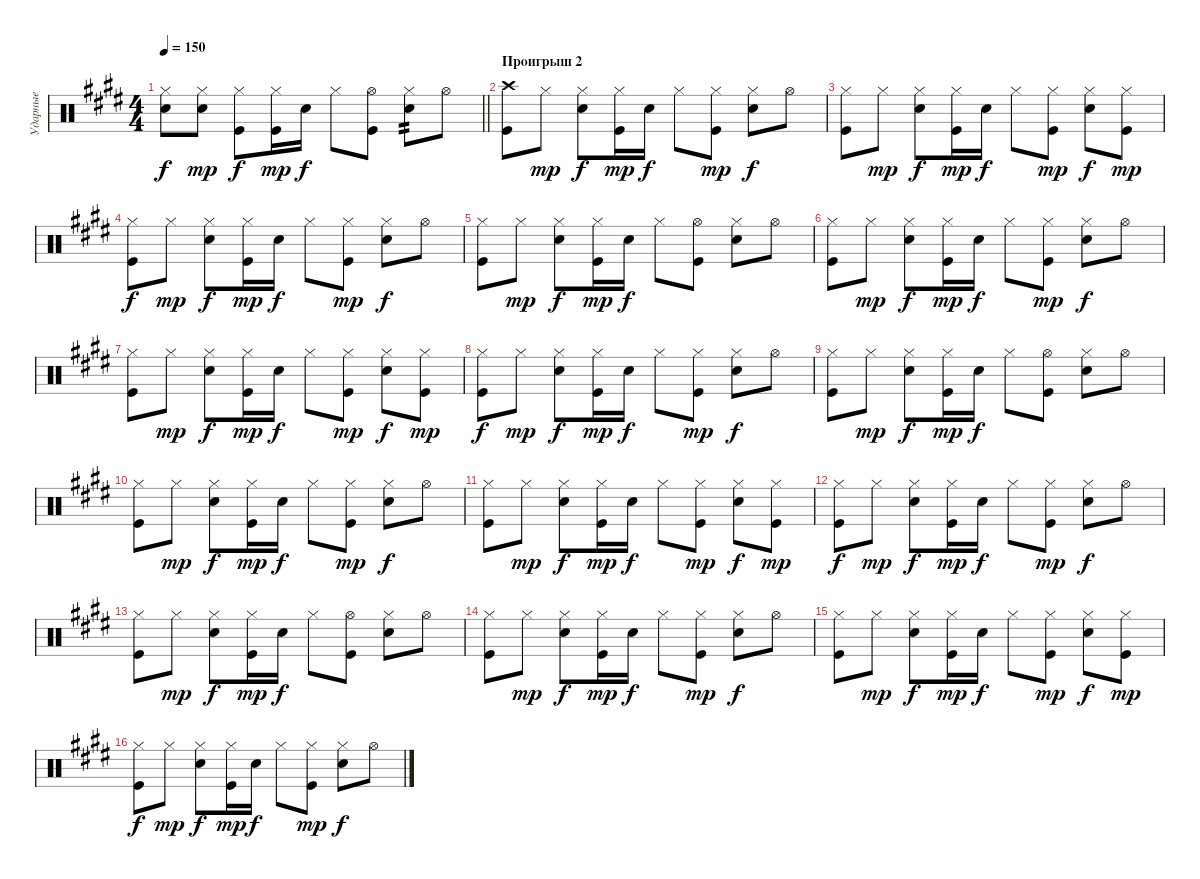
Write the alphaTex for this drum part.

\track ("Ударные" "Ударные") {instrument percussion}
\staff {score}
\articulation defaults
\ts (4 4)
\tempo 150
\clef neutral
\barLineRight lightlight
\ks c#minor
("Hi-Hat (closed)" "Snare (hit) 2").8{dy f} ("Hi-Hat (closed)" "Snare (hit) 2").8{dy mp} ("Hi-Hat (closed)" "Kick (hit)").8{dy f} ("Hi-Hat (closed)" "Kick (hit)").16{dy mp} "Snare (hit) 2".16{dy f} "Hi-Hat (closed)".8 ("Hi-Hat (open)" "Kick (hit)").8 ("Hi-Hat (closed)" "Snare (hit) 2").8{tp 2} "Hi-Hat (open)".8 |
\section ("" "Проигрыш 2")
("Crash high (hit)" "Kick (hit)").8 "Hi-Hat (closed)".8{dy mp} ("Hi-Hat (closed)" "Snare (hit) 2").8{dy f} ("Hi-Hat (closed)" "Kick (hit)").16{dy mp} "Snare (hit) 2".16{dy f} "Hi-Hat (closed)".8 ("Hi-Hat (closed)" "Kick (hit)").8{dy mp} ("Hi-Hat (closed)" "Snare (hit) 2").8{dy f} "Hi-Hat (open)".8 |
("Hi-Hat (closed)" "Kick (hit)").8 "Hi-Hat (closed)".8{dy mp} ("Hi-Hat (closed)" "Snare (hit) 2").8{dy f} ("Hi-Hat (closed)" "Kick (hit)").16{dy mp} "Snare (hit) 2".16{dy f} "Hi-Hat (closed)".8 ("Hi-Hat (closed)" "Kick (hit)").8{dy mp} ("Hi-Hat (closed)" "Snare (hit) 2").8{dy f} ("Hi-Hat (closed)" "Kick (hit)").8{dy mp} |
("Hi-Hat (closed)" "Kick (hit)").8{dy f} "Hi-Hat (closed)".8{dy mp} ("Hi-Hat (closed)" "Snare (hit) 2").8{dy f} ("Hi-Hat (closed)" "Kick (hit)").16{dy mp} "Snare (hit) 2".16{dy f} "Hi-Hat (closed)".8 ("Hi-Hat (closed)" "Kick (hit)").8{dy mp} ("Hi-Hat (closed)" "Snare (hit) 2").8{dy f} "Hi-Hat (open)".8 |
("Hi-Hat (closed)" "Kick (hit)").8 "Hi-Hat (closed)".8{dy mp} ("Hi-Hat (closed)" "Snare (hit) 2").8{dy f} ("Hi-Hat (closed)" "Kick (hit)").16{dy mp} "Snare (hit) 2".16{dy f} "Hi-Hat (closed)".8 ("Hi-Hat (open)" "Kick (hit)").8 ("Hi-Hat (closed)" "Snare (hit) 2").8 "Hi-Hat (open)".8 |
("Hi-Hat (closed)" "Kick (hit)").8 "Hi-Hat (closed)".8{dy mp} ("Hi-Hat (closed)" "Snare (hit) 2").8{dy f} ("Hi-Hat (closed)" "Kick (hit)").16{dy mp} "Snare (hit) 2".16{dy f} "Hi-Hat (closed)".8 ("Hi-Hat (closed)" "Kick (hit)").8{dy mp} ("Hi-Hat (closed)" "Snare (hit) 2").8{dy f} "Hi-Hat (open)".8 |
("Hi-Hat (closed)" "Kick (hit)").8 "Hi-Hat (closed)".8{dy mp} ("Hi-Hat (closed)" "Snare (hit) 2").8{dy f} ("Hi-Hat (closed)" "Kick (hit)").16{dy mp} "Snare (hit) 2".16{dy f} "Hi-Hat (closed)".8 ("Hi-Hat (closed)" "Kick (hit)").8{dy mp} ("Hi-Hat (closed)" "Snare (hit) 2").8{dy f} ("Hi-Hat (closed)" "Kick (hit)").8{dy mp} |
("Hi-Hat (closed)" "Kick (hit)").8{dy f} "Hi-Hat (closed)".8{dy mp} ("Hi-Hat (closed)" "Snare (hit) 2").8{dy f} ("Hi-Hat (closed)" "Kick (hit)").16{dy mp} "Snare (hit) 2".16{dy f} "Hi-Hat (closed)".8 ("Hi-Hat (closed)" "Kick (hit)").8{dy mp} ("Hi-Hat (closed)" "Snare (hit) 2").8{dy f} "Hi-Hat (open)".8 |
("Hi-Hat (closed)" "Kick (hit)").8 "Hi-Hat (closed)".8{dy mp} ("Hi-Hat (closed)" "Snare (hit) 2").8{dy f} ("Hi-Hat (closed)" "Kick (hit)").16{dy mp} "Snare (hit) 2".16{dy f} "Hi-Hat (closed)".8 ("Hi-Hat (open)" "Kick (hit)").8 ("Hi-Hat (closed)" "Snare (hit) 2").8 "Hi-Hat (open)".8 |
("Hi-Hat (closed)" "Kick (hit)").8 "Hi-Hat (closed)".8{dy mp} ("Hi-Hat (closed)" "Snare (hit) 2").8{dy f} ("Hi-Hat (closed)" "Kick (hit)").16{dy mp} "Snare (hit) 2".16{dy f} "Hi-Hat (closed)".8 ("Hi-Hat (closed)" "Kick (hit)").8{dy mp} ("Hi-Hat (closed)" "Snare (hit) 2").8{dy f} "Hi-Hat (open)".8 |
("Hi-Hat (closed)" "Kick (hit)").8 "Hi-Hat (closed)".8{dy mp} ("Hi-Hat (closed)" "Snare (hit) 2").8{dy f} ("Hi-Hat (closed)" "Kick (hit)").16{dy mp} "Snare (hit) 2".16{dy f} "Hi-Hat (closed)".8 ("Hi-Hat (closed)" "Kick (hit)").8{dy mp} ("Hi-Hat (closed)" "Snare (hit) 2").8{dy f} ("Hi-Hat (closed)" "Kick (hit)").8{dy mp} |
("Hi-Hat (closed)" "Kick (hit)").8{dy f} "Hi-Hat (closed)".8{dy mp} ("Hi-Hat (closed)" "Snare (hit) 2").8{dy f} ("Hi-Hat (closed)" "Kick (hit)").16{dy mp} "Snare (hit) 2".16{dy f} "Hi-Hat (closed)".8 ("Hi-Hat (closed)" "Kick (hit)").8{dy mp} ("Hi-Hat (closed)" "Snare (hit) 2").8{dy f} "Hi-Hat (open)".8 |
("Hi-Hat (closed)" "Kick (hit)").8 "Hi-Hat (closed)".8{dy mp} ("Hi-Hat (closed)" "Snare (hit) 2").8{dy f} ("Hi-Hat (closed)" "Kick (hit)").16{dy mp} "Snare (hit) 2".16{dy f} "Hi-Hat (closed)".8 ("Hi-Hat (open)" "Kick (hit)").8 ("Hi-Hat (closed)" "Snare (hit) 2").8 "Hi-Hat (open)".8 |
("Hi-Hat (closed)" "Kick (hit)").8 "Hi-Hat (closed)".8{dy mp} ("Hi-Hat (closed)" "Snare (hit) 2").8{dy f} ("Hi-Hat (closed)" "Kick (hit)").16{dy mp} "Snare (hit) 2".16{dy f} "Hi-Hat (closed)".8 ("Hi-Hat (closed)" "Kick (hit)").8{dy mp} ("Hi-Hat (closed)" "Snare (hit) 2").8{dy f} "Hi-Hat (open)".8 |
("Hi-Hat (closed)" "Kick (hit)").8 "Hi-Hat (closed)".8{dy mp} ("Hi-Hat (closed)" "Snare (hit) 2").8{dy f} ("Hi-Hat (closed)" "Kick (hit)").16{dy mp} "Snare (hit) 2".16{dy f} "Hi-Hat (closed)".8 ("Hi-Hat (closed)" "Kick (hit)").8{dy mp} ("Hi-Hat (closed)" "Snare (hit) 2").8{dy f} ("Hi-Hat (closed)" "Kick (hit)").8{dy mp} |
("Hi-Hat (closed)" "Kick (hit)").8{dy f} "Hi-Hat (closed)".8{dy mp} ("Hi-Hat (closed)" "Snare (hit) 2").8{dy f} ("Hi-Hat (closed)" "Kick (hit)").16{dy mp} "Snare (hit) 2".16{dy f} "Hi-Hat (closed)".8 ("Hi-Hat (closed)" "Kick (hit)").8{dy mp} ("Hi-Hat (closed)" "Snare (hit) 2").8{dy f} "Hi-Hat (open)".8
